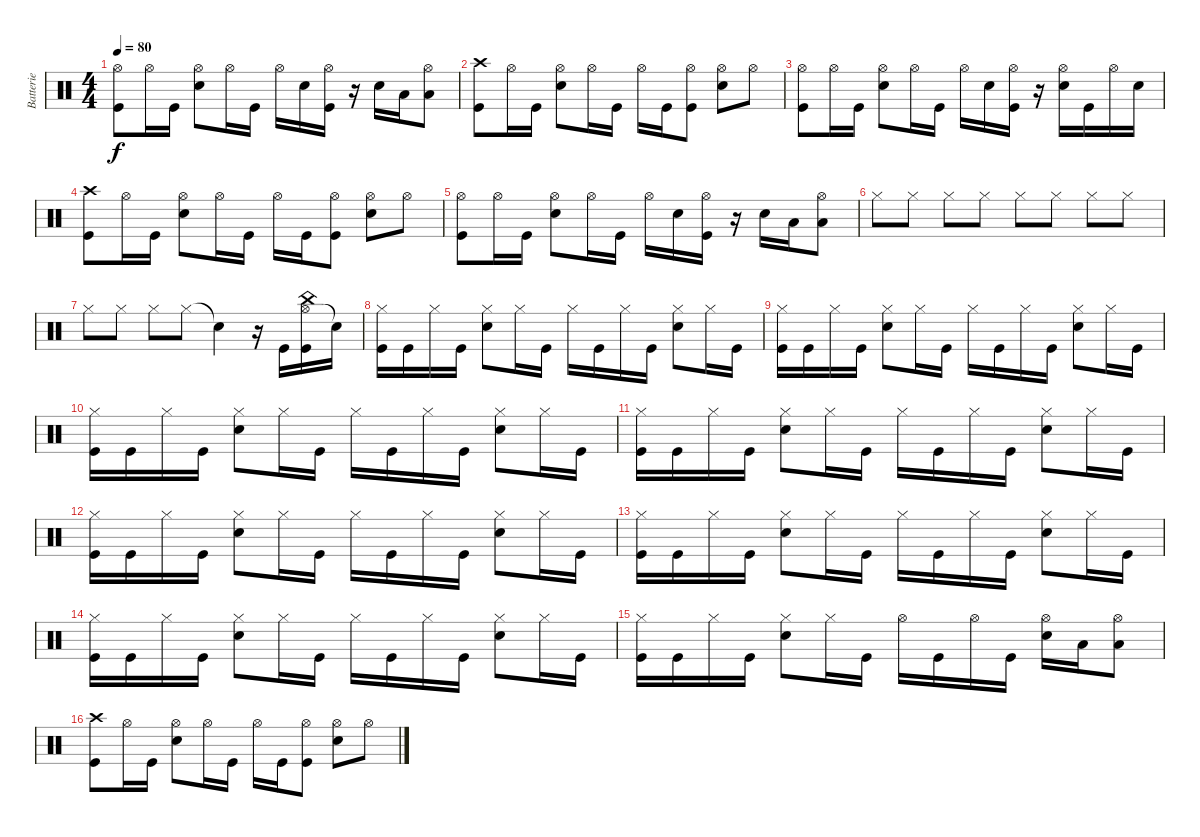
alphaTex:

\track ("Batterie" "Batterie") {instrument percussion}
\staff {score}
\articulation defaults
\ts (4 4)
\tempo 80
\clef neutral
\ks c
("Hi-Hat (open)" "Kick (hit)").8{dy f} "Hi-Hat (open)".16 "Kick (hit)".16 ("Hi-Hat (open)" "Electric Snare (hit)").8 "Hi-Hat (open)".16 "Kick (hit)".16 "Hi-Hat (open)".16 "Electric Snare (hit)".16 ("Hi-Hat (open)" "Kick (hit)").16 r.16 "Electric Snare (hit)".16 "Low Tom (hit)".16 ("Hi-Hat (open)" "Low Floor Tom (hit)").8 |
("Crash high (hit)" "Kick (hit)").8{volume 16} "Hi-Hat (open)".16 "Kick (hit)".16 ("Hi-Hat (open)" "Electric Snare (hit)").8 "Hi-Hat (open)".16 "Kick (hit)".16 "Hi-Hat (open)".16 "Kick (hit)".16 ("Hi-Hat (open)" "Kick (hit)").8 ("Hi-Hat (open)" "Electric Snare (hit)").8 "Hi-Hat (open)".8 |
("Hi-Hat (open)" "Kick (hit)").8 "Hi-Hat (open)".16 "Kick (hit)".16 ("Hi-Hat (open)" "Electric Snare (hit)").8 "Hi-Hat (open)".16 "Kick (hit)".16 "Hi-Hat (open)".16 "Electric Snare (hit)".16 ("Hi-Hat (open)" "Kick (hit)").16 r.16 ("Hi-Hat (open)" "Electric Snare (hit)").16 "Kick (hit)".16 "Hi-Hat (open)".16 "Electric Snare (hit)".16 |
("Crash high (hit)" "Kick (hit)").8{volume 16} "Hi-Hat (open)".16 "Kick (hit)".16 ("Hi-Hat (open)" "Electric Snare (hit)").8 "Hi-Hat (open)".16 "Kick (hit)".16 "Hi-Hat (open)".16 "Kick (hit)".16 ("Hi-Hat (open)" "Kick (hit)").8 ("Hi-Hat (open)" "Electric Snare (hit)").8 "Hi-Hat (open)".8 |
("Hi-Hat (open)" "Kick (hit)").8 "Hi-Hat (open)".16 "Kick (hit)".16 ("Hi-Hat (open)" "Electric Snare (hit)").8 "Hi-Hat (open)".16 "Kick (hit)".16 "Hi-Hat (open)".16 "Electric Snare (hit)".16 ("Hi-Hat (open)" "Kick (hit)").16 r.16 "Electric Snare (hit)".16 "Low Tom (hit)".16 ("Hi-Hat (open)" "Low Floor Tom (hit)").8 |
"Hi-Hat (closed)".8 "Hi-Hat (closed)".8 "Hi-Hat (closed)".8 "Hi-Hat (closed)".8 "Hi-Hat (closed)".8 "Hi-Hat (closed)".8 "Hi-Hat (closed)".8 "Hi-Hat (closed)".8 |
"Hi-Hat (closed)".8 "Hi-Hat (closed)".8 "Hi-Hat (closed)".8 "Hi-Hat (closed)".8 "Snare (hit)"{t}.4 r.16 "Kick (hit)".16 ("Hi-Hat (open)" "China (hit)" "Kick (hit)").16 "Snare (hit)"{t}.16 |
("Hi-Hat (closed)" "Kick (hit)").16{volume 16} "Kick (hit)".16 "Hi-Hat (closed)".16 "Kick (hit)".16 ("Hi-Hat (closed)" "Electric Snare (hit)").8 "Hi-Hat (closed)".16 "Kick (hit)".16 "Hi-Hat (closed)".16 "Kick (hit)".16 "Hi-Hat (closed)".16 "Kick (hit)".16 ("Hi-Hat (closed)" "Electric Snare (hit)").8 "Hi-Hat (closed)".16 "Kick (hit)".16 |
("Hi-Hat (closed)" "Kick (hit)").16{volume 16} "Kick (hit)".16 "Hi-Hat (closed)".16 "Kick (hit)".16 ("Hi-Hat (closed)" "Electric Snare (hit)").8 "Hi-Hat (closed)".16 "Kick (hit)".16 "Hi-Hat (closed)".16 "Kick (hit)".16 "Hi-Hat (closed)".16 "Kick (hit)".16 ("Hi-Hat (closed)" "Electric Snare (hit)").8 "Hi-Hat (closed)".16 "Kick (hit)".16 |
("Hi-Hat (closed)" "Kick (hit)").16{volume 16} "Kick (hit)".16 "Hi-Hat (closed)".16 "Kick (hit)".16 ("Hi-Hat (closed)" "Electric Snare (hit)").8 "Hi-Hat (closed)".16 "Kick (hit)".16 "Hi-Hat (closed)".16 "Kick (hit)".16 "Hi-Hat (closed)".16 "Kick (hit)".16 ("Hi-Hat (closed)" "Electric Snare (hit)").8 "Hi-Hat (closed)".16 "Kick (hit)".16 |
("Hi-Hat (closed)" "Kick (hit)").16{volume 16} "Kick (hit)".16 "Hi-Hat (closed)".16 "Kick (hit)".16 ("Hi-Hat (closed)" "Electric Snare (hit)").8 "Hi-Hat (closed)".16 "Kick (hit)".16 "Hi-Hat (closed)".16 "Kick (hit)".16 "Hi-Hat (closed)".16 "Kick (hit)".16 ("Hi-Hat (closed)" "Electric Snare (hit)").8 "Hi-Hat (closed)".16 "Kick (hit)".16 |
("Hi-Hat (closed)" "Kick (hit)").16{volume 16} "Kick (hit)".16 "Hi-Hat (closed)".16 "Kick (hit)".16 ("Hi-Hat (closed)" "Electric Snare (hit)").8 "Hi-Hat (closed)".16 "Kick (hit)".16 "Hi-Hat (closed)".16 "Kick (hit)".16 "Hi-Hat (closed)".16 "Kick (hit)".16 ("Hi-Hat (closed)" "Electric Snare (hit)").8 "Hi-Hat (closed)".16 "Kick (hit)".16 |
("Hi-Hat (closed)" "Kick (hit)").16{volume 16} "Kick (hit)".16 "Hi-Hat (closed)".16 "Kick (hit)".16 ("Hi-Hat (closed)" "Electric Snare (hit)").8 "Hi-Hat (closed)".16 "Kick (hit)".16 "Hi-Hat (closed)".16 "Kick (hit)".16 "Hi-Hat (closed)".16 "Kick (hit)".16 ("Hi-Hat (closed)" "Electric Snare (hit)").8 "Hi-Hat (closed)".16 "Kick (hit)".16 |
("Hi-Hat (closed)" "Kick (hit)").16{volume 16} "Kick (hit)".16 "Hi-Hat (closed)".16 "Kick (hit)".16 ("Hi-Hat (closed)" "Electric Snare (hit)").8 "Hi-Hat (closed)".16 "Kick (hit)".16 "Hi-Hat (closed)".16 "Kick (hit)".16 "Hi-Hat (closed)".16 "Kick (hit)".16 ("Hi-Hat (closed)" "Electric Snare (hit)").8 "Hi-Hat (closed)".16 "Kick (hit)".16 |
("Hi-Hat (closed)" "Kick (hit)").16{volume 16} "Kick (hit)".16 "Hi-Hat (closed)".16 "Kick (hit)".16 ("Hi-Hat (closed)" "Electric Snare (hit)").8 "Hi-Hat (closed)".16 "Kick (hit)".16 "Hi-Hat (open)".16 "Kick (hit)".16 "Hi-Hat (open)".16 "Kick (hit)".16 ("Hi-Hat (open)" "Electric Snare (hit)").16 "Low Tom (hit)".16 ("Hi-Hat (open)" "Low Floor Tom (hit)").8 |
("Crash high (hit)" "Kick (hit)").8{volume 16} "Hi-Hat (open)".16 "Kick (hit)".16 ("Hi-Hat (open)" "Electric Snare (hit)").8 "Hi-Hat (open)".16 "Kick (hit)".16 "Hi-Hat (open)".16 "Kick (hit)".16 ("Hi-Hat (open)" "Kick (hit)").8 ("Hi-Hat (open)" "Electric Snare (hit)").8 "Hi-Hat (open)".8
